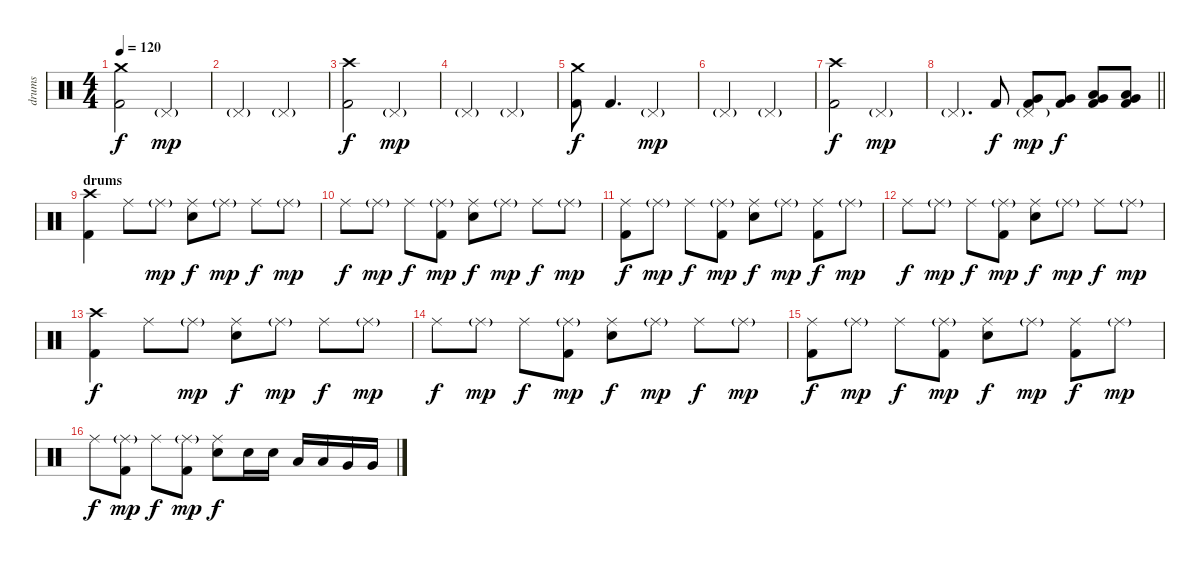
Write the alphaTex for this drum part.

\track ("drums" "drums") {instrument percussion}
\staff {score}
\articulation defaults
\ts (4 4)
\tempo 120
\clef neutral
\ks c
("Crash medium (hit)" "Kick (hit) 2").2{dy f} "Pedal Hi-Hat (hit)"{g}.2{dy mp} |
"Pedal Hi-Hat (hit)"{g}.2 "Pedal Hi-Hat (hit)"{g}.2 |
("Crash high (hit)" "Kick (hit) 2").2{dy f} "Pedal Hi-Hat (hit)"{g}.2{dy mp} |
"Pedal Hi-Hat (hit)"{g}.2 "Pedal Hi-Hat (hit)"{g}.2 |
("Crash medium (hit)" "Kick (hit) 2").8{dy f} "Kick (hit) 2".4{d} "Pedal Hi-Hat (hit)"{g}.2{dy mp} |
"Pedal Hi-Hat (hit)"{g}.2 "Pedal Hi-Hat (hit)"{g}.2 |
("Crash high (hit)" "Kick (hit) 2").2{dy f} "Pedal Hi-Hat (hit)"{g}.2{dy mp} |
\barLineRight lightlight "Pedal Hi-Hat (hit)"{g}.4{d} "Kick (hit) 2".8{dy f}
("Pedal Hi-Hat (hit)"{g} "Very Low Tom (hit)" "Kick (hit) 2").8{dy mp} ("Very Low Tom (hit)" "Kick (hit) 2").8{dy f} ("Low Tom (hit)" "Very Low Tom (hit)" "Kick (hit) 2").8 ("Low Tom (hit)" "Very Low Tom (hit)" "Kick (hit) 2").8 |
\section ("" "drums")
("Crash high (hit)" "Kick (hit) 2").4 "Ride (middle)".8 "Ride (middle)"{g}.8{dy mp} ("Ride (middle)" "Electric Snare (hit)").8{dy f} "Ride (middle)"{g}.8{dy mp} "Ride (middle)".8{dy f} "Ride (middle)"{g}.8{dy mp} |
"Ride (middle)".8{dy f} "Ride (middle)"{g}.8{dy mp} "Ride (middle)".8{dy f} ("Ride (middle)"{g} "Kick (hit) 2").8{dy mp} ("Ride (middle)" "Electric Snare (hit)").8{dy f} "Ride (middle)"{g}.8{dy mp} "Ride (middle)".8{dy f} "Ride (middle)"{g}.8{dy mp} |
("Ride (middle)" "Kick (hit) 2").8{dy f} "Ride (middle)"{g}.8{dy mp} "Ride (middle)".8{dy f} ("Ride (middle)"{g} "Kick (hit) 2").8{dy mp} ("Ride (middle)" "Electric Snare (hit)").8{dy f} "Ride (middle)"{g}.8{dy mp} ("Ride (middle)" "Kick (hit) 2").8{dy f} "Ride (middle)"{g}.8{dy mp} |
"Ride (middle)".8{dy f} "Ride (middle)"{g}.8{dy mp} "Ride (middle)".8{dy f} ("Ride (middle)"{g} "Kick (hit) 2").8{dy mp} ("Ride (middle)" "Electric Snare (hit)").8{dy f} "Ride (middle)"{g}.8{dy mp} "Ride (middle)".8{dy f} "Ride (middle)"{g}.8{dy mp} |
("Crash high (hit)" "Kick (hit) 2").4{dy f} "Ride (middle)".8 "Ride (middle)"{g}.8{dy mp} ("Ride (middle)" "Electric Snare (hit)").8{dy f} "Ride (middle)"{g}.8{dy mp} "Ride (middle)".8{dy f} "Ride (middle)"{g}.8{dy mp} |
"Ride (middle)".8{dy f} "Ride (middle)"{g}.8{dy mp} "Ride (middle)".8{dy f} ("Ride (middle)"{g} "Kick (hit) 2").8{dy mp} ("Ride (middle)" "Electric Snare (hit)").8{dy f} "Ride (middle)"{g}.8{dy mp} "Ride (middle)".8{dy f} "Ride (middle)"{g}.8{dy mp} |
("Ride (middle)" "Kick (hit) 2").8{dy f} "Ride (middle)"{g}.8{dy mp} "Ride (middle)".8{dy f} ("Ride (middle)"{g} "Kick (hit) 2").8{dy mp} ("Ride (middle)" "Electric Snare (hit)").8{dy f} "Ride (middle)"{g}.8{dy mp} ("Ride (middle)" "Kick (hit) 2").8{dy f} "Ride (middle)"{g}.8{dy mp} |
"Ride (middle)".8{dy f} ("Ride (middle)"{g} "Kick (hit) 2").8{dy mp} "Ride (middle)".8{dy f} ("Ride (middle)"{g} "Kick (hit) 2").8{dy mp} ("Ride (middle)" "Electric Snare (hit)").8{dy f} "Electric Snare (hit)".16 "Electric Snare (hit)".16 "Low Tom (hit)".16 "Low Tom (hit)".16 "Very Low Tom (hit)".16 "Very Low Tom (hit)".16
